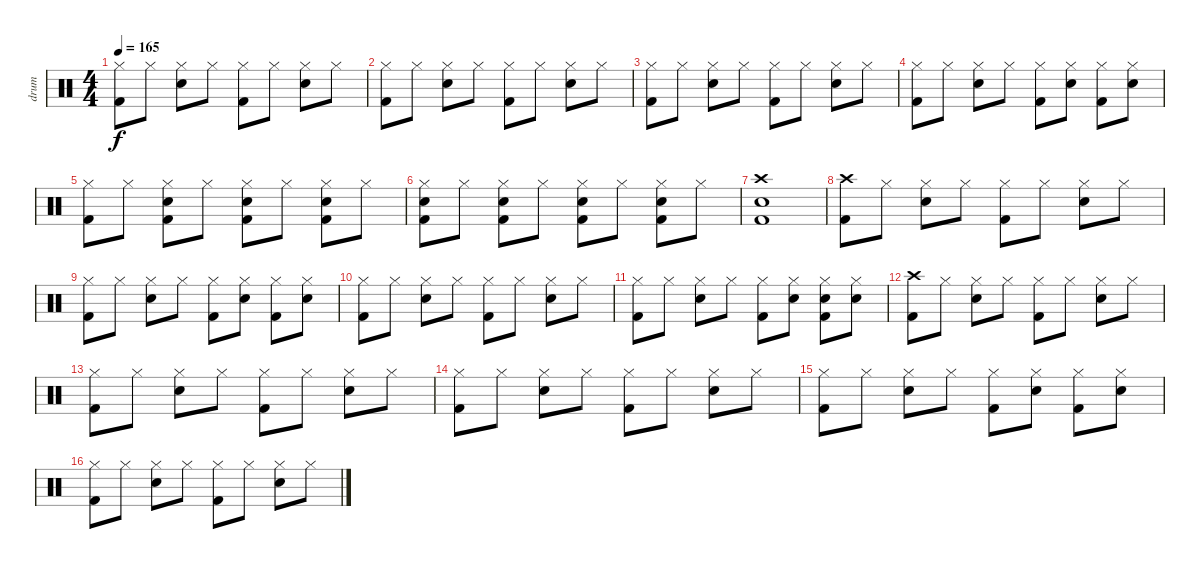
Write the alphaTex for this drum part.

\track ("drum" "drum") {instrument percussion}
\staff {score}
\articulation defaults
\ts (4 4)
\tempo 165
\clef neutral
\ks c
("Hi-Hat (closed)" "Kick (hit) 2").8{dy f} "Hi-Hat (closed)".8 ("Hi-Hat (closed)" "Snare (hit) 2").8 "Hi-Hat (closed)".8 ("Hi-Hat (closed)" "Kick (hit) 2").8 "Hi-Hat (closed)".8 ("Hi-Hat (closed)" "Snare (hit) 2").8 "Hi-Hat (closed)".8 |
("Hi-Hat (closed)" "Kick (hit) 2").8 "Hi-Hat (closed)".8 ("Hi-Hat (closed)" "Snare (hit) 2").8 "Hi-Hat (closed)".8 ("Hi-Hat (closed)" "Kick (hit) 2").8 "Hi-Hat (closed)".8 ("Hi-Hat (closed)" "Snare (hit) 2").8 "Hi-Hat (closed)".8 |
("Hi-Hat (closed)" "Kick (hit) 2").8 "Hi-Hat (closed)".8 ("Hi-Hat (closed)" "Snare (hit) 2").8 "Hi-Hat (closed)".8 ("Hi-Hat (closed)" "Kick (hit) 2").8 "Hi-Hat (closed)".8 ("Hi-Hat (closed)" "Snare (hit) 2").8 "Hi-Hat (closed)".8 |
("Hi-Hat (closed)" "Kick (hit) 2").8 "Hi-Hat (closed)".8 ("Hi-Hat (closed)" "Snare (hit) 2").8 "Hi-Hat (closed)".8 ("Hi-Hat (closed)" "Kick (hit) 2").8 ("Hi-Hat (closed)" "Snare (hit) 2").8 ("Hi-Hat (closed)" "Kick (hit) 2").8 ("Hi-Hat (closed)" "Snare (hit) 2").8 |
("Hi-Hat (closed)" "Kick (hit) 2").8 "Hi-Hat (closed)".8 ("Hi-Hat (closed)" "Snare (hit) 2" "Kick (hit) 2").8 "Hi-Hat (closed)".8 ("Hi-Hat (closed)" "Snare (hit) 2" "Kick (hit) 2").8 "Hi-Hat (closed)".8 ("Hi-Hat (closed)" "Snare (hit) 2" "Kick (hit) 2").8 "Hi-Hat (closed)".8 |
("Hi-Hat (closed)" "Snare (hit) 2" "Kick (hit) 2").8 "Hi-Hat (closed)".8 ("Hi-Hat (closed)" "Snare (hit) 2" "Kick (hit) 2").8 "Hi-Hat (closed)".8 ("Hi-Hat (closed)" "Snare (hit) 2" "Kick (hit) 2").8 "Hi-Hat (closed)".8 ("Hi-Hat (closed)" "Snare (hit) 2" "Kick (hit) 2").8 "Hi-Hat (closed)".8 |
("Crash high (hit)" "Snare (hit) 2" "Kick (hit) 2").1 |
("Crash high (hit)" "Kick (hit) 2").8 "Hi-Hat (closed)".8 ("Hi-Hat (closed)" "Snare (hit) 2").8 "Hi-Hat (closed)".8 ("Hi-Hat (closed)" "Kick (hit) 2").8 "Hi-Hat (closed)".8 ("Hi-Hat (closed)" "Snare (hit) 2").8 "Hi-Hat (closed)".8 |
("Hi-Hat (closed)" "Kick (hit) 2").8 "Hi-Hat (closed)".8 ("Hi-Hat (closed)" "Snare (hit) 2").8 "Hi-Hat (closed)".8 ("Hi-Hat (closed)" "Kick (hit) 2").8 ("Hi-Hat (closed)" "Snare (hit) 2").8 ("Hi-Hat (closed)" "Kick (hit) 2").8 ("Hi-Hat (closed)" "Snare (hit) 2").8 |
("Hi-Hat (closed)" "Kick (hit) 2").8 "Hi-Hat (closed)".8 ("Hi-Hat (closed)" "Snare (hit) 2").8 "Hi-Hat (closed)".8 ("Hi-Hat (closed)" "Kick (hit) 2").8 "Hi-Hat (closed)".8 ("Hi-Hat (closed)" "Snare (hit) 2").8 "Hi-Hat (closed)".8 |
("Hi-Hat (closed)" "Kick (hit) 2").8 "Hi-Hat (closed)".8 ("Hi-Hat (closed)" "Snare (hit) 2").8 "Hi-Hat (closed)".8 ("Hi-Hat (closed)" "Kick (hit) 2").8 ("Hi-Hat (closed)" "Snare (hit) 2").8 ("Hi-Hat (closed)" "Snare (hit) 2" "Kick (hit) 2").8 ("Hi-Hat (closed)" "Snare (hit) 2").8 |
("Crash high (hit)" "Kick (hit) 2").8 "Hi-Hat (closed)".8 ("Hi-Hat (closed)" "Snare (hit) 2").8 "Hi-Hat (closed)".8 ("Hi-Hat (closed)" "Kick (hit) 2").8 "Hi-Hat (closed)".8 ("Hi-Hat (closed)" "Snare (hit) 2").8 "Hi-Hat (closed)".8 |
("Hi-Hat (closed)" "Kick (hit) 2").8 "Hi-Hat (closed)".8 ("Hi-Hat (closed)" "Snare (hit) 2").8 "Hi-Hat (closed)".8 ("Hi-Hat (closed)" "Kick (hit) 2").8 "Hi-Hat (closed)".8 ("Hi-Hat (closed)" "Snare (hit) 2").8 "Hi-Hat (closed)".8 |
("Hi-Hat (closed)" "Kick (hit) 2").8 "Hi-Hat (closed)".8 ("Hi-Hat (closed)" "Snare (hit) 2").8 "Hi-Hat (closed)".8 ("Hi-Hat (closed)" "Kick (hit) 2").8 "Hi-Hat (closed)".8 ("Hi-Hat (closed)" "Snare (hit) 2").8 "Hi-Hat (closed)".8 |
("Hi-Hat (closed)" "Kick (hit) 2").8 "Hi-Hat (closed)".8 ("Hi-Hat (closed)" "Snare (hit) 2").8 "Hi-Hat (closed)".8 ("Hi-Hat (closed)" "Kick (hit) 2").8 ("Hi-Hat (closed)" "Snare (hit) 2").8 ("Hi-Hat (closed)" "Kick (hit) 2").8 ("Hi-Hat (closed)" "Snare (hit) 2").8 |
("Hi-Hat (closed)" "Kick (hit) 2").8 "Hi-Hat (closed)".8 ("Hi-Hat (closed)" "Snare (hit) 2").8 "Hi-Hat (closed)".8 ("Hi-Hat (closed)" "Kick (hit) 2").8 "Hi-Hat (closed)".8 ("Hi-Hat (closed)" "Snare (hit) 2").8 "Hi-Hat (closed)".8
